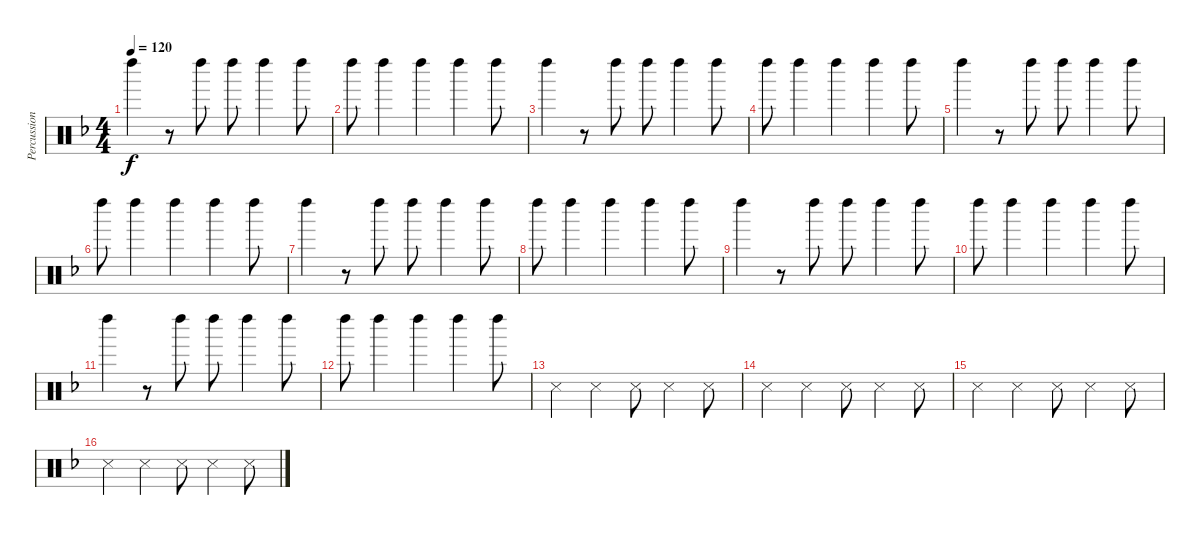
\track ("Percussion" "Percussion") {instrument percussion}
\staff {score}
\articulation defaults
\ts (4 4)
\tempo 120
\clef neutral
\ks f "Left Maraca (hit)".4{dy f}
r.8 "Left Maraca (hit)".8 "Left Maraca (hit)".8 "Left Maraca (hit)".4 "Left Maraca (hit)".8 |
"Left Maraca (hit)".8 "Left Maraca (hit)".4 "Left Maraca (hit)".4 "Left Maraca (hit)".4 "Left Maraca (hit)".8 |
"Left Maraca (hit)".4 r.8 "Left Maraca (hit)".8 "Left Maraca (hit)".8 "Left Maraca (hit)".4 "Left Maraca (hit)".8 |
"Left Maraca (hit)".8 "Left Maraca (hit)".4 "Left Maraca (hit)".4 "Left Maraca (hit)".4 "Left Maraca (hit)".8 |
"Left Maraca (hit)".4 r.8 "Left Maraca (hit)".8 "Left Maraca (hit)".8 "Left Maraca (hit)".4 "Left Maraca (hit)".8 |
"Left Maraca (hit)".8 "Left Maraca (hit)".4 "Left Maraca (hit)".4 "Left Maraca (hit)".4 "Left Maraca (hit)".8 |
"Left Maraca (hit)".4 r.8 "Left Maraca (hit)".8 "Left Maraca (hit)".8 "Left Maraca (hit)".4 "Left Maraca (hit)".8 |
"Left Maraca (hit)".8 "Left Maraca (hit)".4 "Left Maraca (hit)".4 "Left Maraca (hit)".4 "Left Maraca (hit)".8 |
"Left Maraca (hit)".4 r.8 "Left Maraca (hit)".8 "Left Maraca (hit)".8 "Left Maraca (hit)".4 "Left Maraca (hit)".8 |
"Left Maraca (hit)".8 "Left Maraca (hit)".4 "Left Maraca (hit)".4 "Left Maraca (hit)".4 "Left Maraca (hit)".8 |
"Left Maraca (hit)".4 r.8 "Left Maraca (hit)".8 "Left Maraca (hit)".8 "Left Maraca (hit)".4 "Left Maraca (hit)".8 |
"Left Maraca (hit)".8 "Left Maraca (hit)".4 "Left Maraca (hit)".4 "Left Maraca (hit)".4 "Left Maraca (hit)".8 |
"Snare (side stick) 3".4 "Snare (side stick) 3".4 "Snare (side stick) 3".8 "Snare (side stick) 3".4 "Snare (side stick) 3".8 |
"Snare (side stick) 3".4 "Snare (side stick) 3".4 "Snare (side stick) 3".8 "Snare (side stick) 3".4 "Snare (side stick) 3".8 |
"Snare (side stick) 3".4 "Snare (side stick) 3".4 "Snare (side stick) 3".8 "Snare (side stick) 3".4 "Snare (side stick) 3".8 |
"Snare (side stick) 3".4 "Snare (side stick) 3".4 "Snare (side stick) 3".8 "Snare (side stick) 3".4 "Snare (side stick) 3".8
